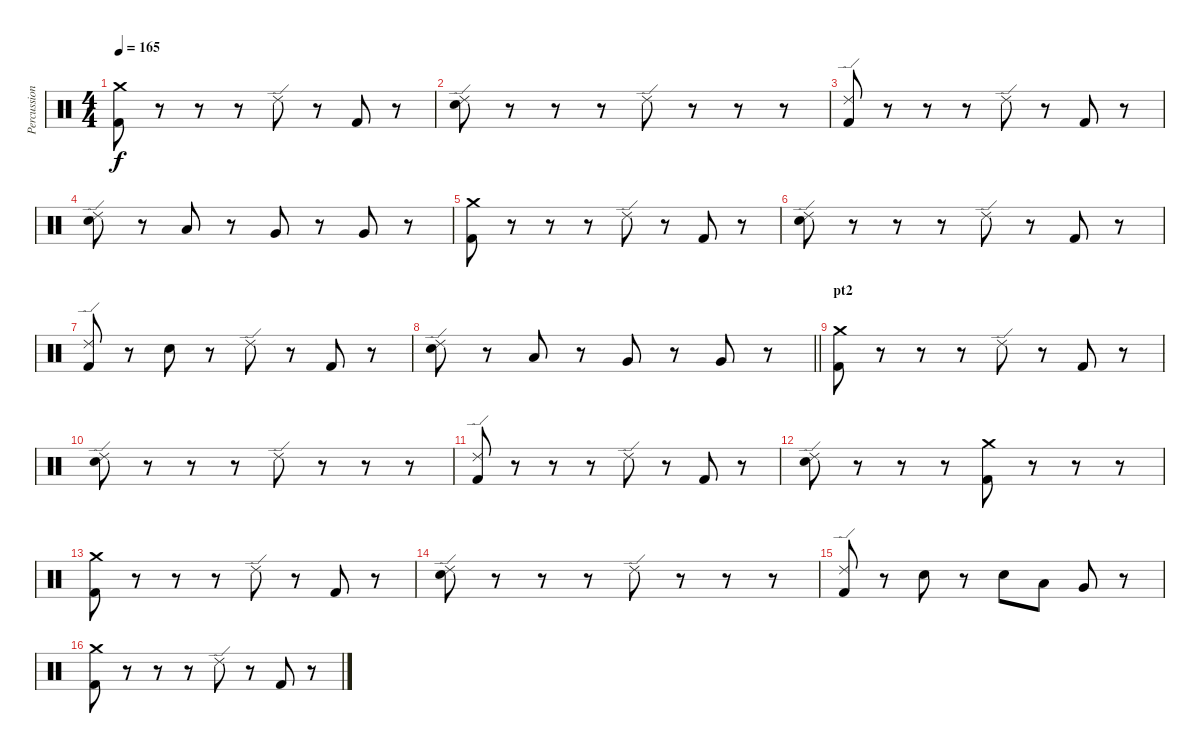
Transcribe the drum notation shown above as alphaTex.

\track ("Percussion" "Percussion") {instrument percussion}
\staff {score}
\articulation defaults
\ts (4 4)
\tempo 165
\clef neutral
\ks c
("Crash medium (hit)" "Kick (hit) 2").8{dy f} r.8 r.8 r.8 "Ride (edge) 2".8 r.8 "Kick (hit) 2".8 r.8 |
("Ride (edge) 2" "Electric Snare (hit)").8 r.8 r.8 r.8 "Ride (edge) 2".8 r.8 r.8 r.8 |
("Ride (edge) 2" "Kick (hit) 2").8 r.8 r.8 r.8 "Ride (edge) 2".8 r.8 "Kick (hit) 2".8 r.8 |
("Ride (edge) 2" "Electric Snare (hit)").8 r.8 "Low Tom (hit)".8 r.8 "Very Low Tom (hit)".8 r.8 "Very Low Tom (hit)".8 r.8 |
("Crash medium (hit)" "Kick (hit) 2").8 r.8 r.8 r.8 "Ride (edge) 2".8 r.8 "Kick (hit) 2".8 r.8 |
("Ride (edge) 2" "Electric Snare (hit)").8 r.8 r.8 r.8 "Ride (edge) 2".8 r.8 "Kick (hit) 2".8 r.8 |
("Ride (edge) 2" "Kick (hit) 2").8 r.8 "Electric Snare (hit)".8 r.8 "Ride (edge) 2".8 r.8 "Kick (hit) 2".8 r.8 |
\barLineRight lightlight
("Ride (edge) 2" "Electric Snare (hit)").8 r.8 "Low Tom (hit)".8 r.8 "Very Low Tom (hit)".8 r.8 "Very Low Tom (hit)".8 r.8 |
\section ("" "pt2")
("Kick (hit) 2" "Crash medium (hit)").8 r.8 r.8 r.8 "Ride (edge) 2".8 r.8 "Kick (hit) 2".8 r.8 |
("Ride (edge) 2" "Electric Snare (hit)").8 r.8 r.8 r.8 "Ride (edge) 2".8 r.8 r.8 r.8 |
("Ride (edge) 2" "Kick (hit) 2").8 r.8 r.8 r.8 "Ride (edge) 2".8 r.8 "Kick (hit) 2".8 r.8 |
("Ride (edge) 2" "Electric Snare (hit)").8 r.8 r.8 r.8 ("Crash medium (hit)" "Kick (hit) 2").8 r.8 r.8 r.8 |
("Crash medium (hit)" "Kick (hit) 2").8 r.8 r.8 r.8 "Ride (edge) 2".8 r.8 "Kick (hit) 2".8 r.8 |
("Ride (edge) 2" "Electric Snare (hit)").8 r.8 r.8 r.8 "Ride (edge) 2".8 r.8 r.8 r.8 |
("Ride (edge) 2" "Kick (hit) 2").8 r.8 "Electric Snare (hit)".8 r.8 "Electric Snare (hit)".8 "Low Tom (hit)".8 "Very Low Tom (hit)".8 r.8 |
("Kick (hit) 2" "Crash medium (hit)").8 r.8 r.8 r.8 "Ride (edge) 2".8 r.8 "Kick (hit) 2".8 r.8
